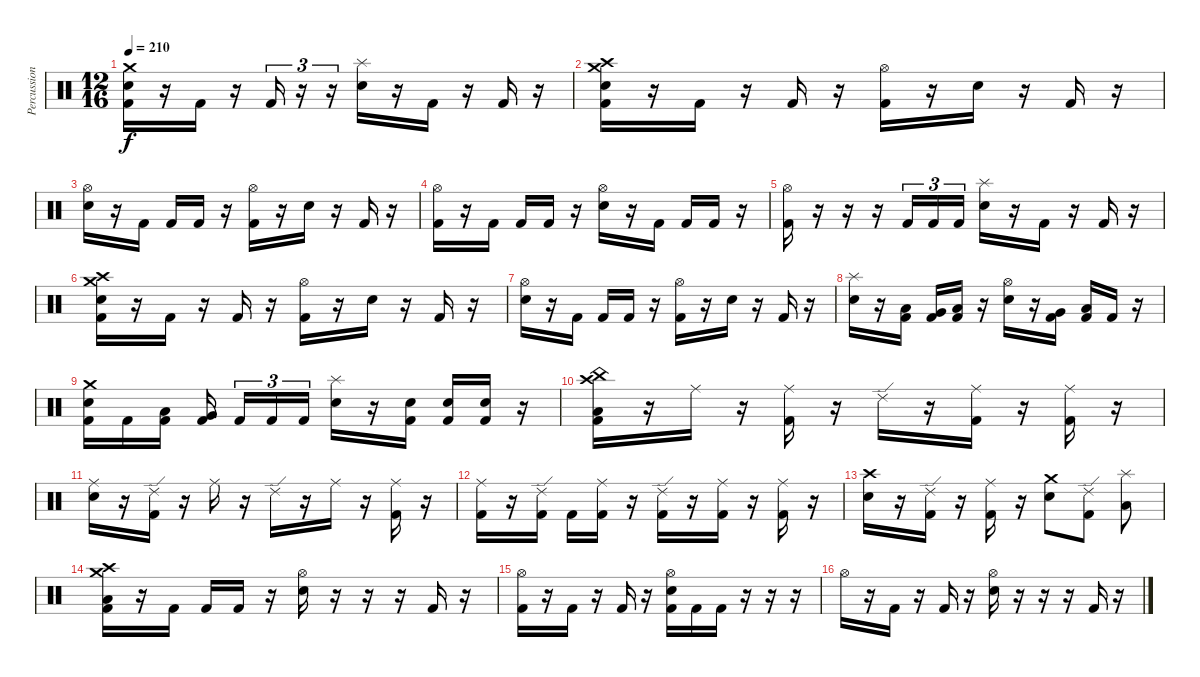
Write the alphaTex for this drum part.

\track ("Percussion" "Percussion") {instrument percussion}
\staff {score}
\articulation defaults
\ts (12 16)
\tempo 210
\clef neutral
\ks c
("Crash medium (hit)" "Electric Snare (hit)" "Kick (hit) 2").16{dy f} r.16 "Kick (hit) 2".16 r.16 "Kick (hit) 2".16{tu (3 2)} r.16{tu (3 2)} r.16{tu (3 2)} ("Splash (hit)" "Electric Snare (hit)").16 r.16 "Kick (hit) 2".16 r.16 "Kick (hit) 2".16 r.16 |
("Crash high (hit)" "Crash medium (hit)" "Electric Snare (hit)" "Kick (hit) 2").16 r.16 "Kick (hit) 2".16 r.16 "Kick (hit) 2".16 r.16 ("Hi-Hat (open)" "Kick (hit) 2").16 r.16 "Electric Snare (hit)".16 r.16 "Kick (hit) 2".16 r.16 |
("Hi-Hat (open)" "Electric Snare (hit)").16 r.16 "Kick (hit) 2".16 "Kick (hit) 2".16 "Kick (hit) 2".16 r.16 ("Hi-Hat (open)" "Kick (hit) 2").16 r.16 "Electric Snare (hit)".16 r.16 "Kick (hit) 2".16 r.16 |
("Hi-Hat (open)" "Kick (hit) 2").16 r.16 "Kick (hit) 2".16 "Kick (hit) 2".16 "Kick (hit) 2".16 r.16 ("Hi-Hat (open)" "Electric Snare (hit)").16 r.16 "Kick (hit) 2".16 "Kick (hit) 2".16 "Kick (hit) 2".16 r.16 |
("Hi-Hat (open)" "Kick (hit) 2").16 r.16 r.16 r.16 "Kick (hit) 2".16{tu (3 2)} "Kick (hit) 2".16{tu (3 2)} "Kick (hit) 2".16{tu (3 2)} ("Splash (hit)" "Electric Snare (hit)").16 r.16 "Kick (hit) 2".16 r.16 "Kick (hit) 2".16 r.16 |
("Crash high (hit)" "Crash medium (hit)" "Electric Snare (hit)" "Kick (hit) 2").16 r.16 "Kick (hit) 2".16 r.16 "Kick (hit) 2".16 r.16 ("Hi-Hat (open)" "Kick (hit) 2").16 r.16 "Electric Snare (hit)".16 r.16 "Kick (hit) 2".16 r.16 |
("Hi-Hat (open)" "Electric Snare (hit)").16 r.16 "Kick (hit) 2".16 "Kick (hit) 2".16 "Kick (hit) 2".16 r.16 ("Hi-Hat (open)" "Kick (hit) 2").16 r.16 "Electric Snare (hit)".16 r.16 "Kick (hit) 2".16 r.16 |
("Splash (hit)" "Electric Snare (hit)").16 r.16 ("Low Tom (hit)" "Kick (hit) 2").16 ("Very Low Tom (hit)" "Kick (hit) 2").16 ("Low Floor Tom (hit)" "Kick (hit) 2").16 r.16 ("Hi-Hat (open)" "Electric Snare (hit)").16 r.16 ("Very Low Tom (hit)" "Kick (hit) 2").16 ("Low Floor Tom (hit)" "Kick (hit) 2").16 "Kick (hit) 2".16 r.16 |
("Crash medium (hit)" "Electric Snare (hit)" "Kick (hit) 2").16 "Kick (hit) 2".16 ("Low Tom (hit)" "Kick (hit) 2").16 ("Very Low Tom (hit)" "Kick (hit) 2").16 "Kick (hit) 2".16{tu (3 2)} "Kick (hit) 2".16{tu (3 2)} "Kick (hit) 2".16{tu (3 2)} ("Splash (hit)" "Electric Snare (hit)").16 r.16 ("Electric Snare (hit)" "Kick (hit) 2").16 ("Electric Snare (hit)" "Kick (hit) 2").16 ("Electric Snare (hit)" "Kick (hit) 2").16 r.16 |
("China (hit)" "Crash high (hit)" "Low Floor Tom (hit)" "Kick (hit) 2").16 r.16 "Ride (middle)".16 r.16 ("Ride (middle)" "Kick (hit) 2").16 r.16 "Ride (edge) 2".16 r.16 ("Ride (middle)" "Kick (hit) 2").16 r.16 ("Ride (middle)" "Kick (hit) 2").16 r.16 |
("Ride (middle)" "Electric Snare (hit)").16 r.16 ("Ride (edge) 2" "Kick (hit) 2").16 r.16 "Ride (middle)".16 r.16 "Ride (edge) 2".16 r.16 "Ride (middle)".16 r.16 ("Ride (middle)" "Kick (hit) 2").16 r.16 |
("Ride (middle)" "Kick (hit) 2").16 r.16 ("Ride (edge) 2" "Kick (hit) 2").16 "Kick (hit) 2".16 ("Ride (middle)" "Kick (hit) 2").16 r.16 ("Ride (edge) 2" "Kick (hit) 2").16 r.16 ("Ride (middle)" "Kick (hit) 2").16 r.16 ("Ride (middle)" "Kick (hit) 2").16 r.16 |
("Crash high (hit)" "Electric Snare (hit)").16 r.16 ("Ride (edge) 2" "Kick (hit) 2").16 r.16 ("Ride (middle)" "Kick (hit) 2").16 r.16 ("Crash medium (hit)" "Electric Snare (hit)").8 ("Ride (edge) 2" "Kick (hit) 2").8 ("Splash (hit)" "Low Floor Tom (hit)").8 |
("Crash high (hit)" "Crash medium (hit)" "Low Floor Tom (hit)" "Kick (hit) 2").16 r.16 "Kick (hit) 2".16 "Kick (hit) 2".16 "Kick (hit) 2".16 r.16 ("Hi-Hat (open)" "Electric Snare (hit)").16 r.16 r.16 r.16 "Kick (hit) 2".16 r.16 |
("Hi-Hat (open)" "Kick (hit) 2").16 r.16 "Kick (hit) 2".16 r.16 "Kick (hit) 2".16 r.16 ("Hi-Hat (open)" "Electric Snare (hit)" "Kick (hit) 2").16 "Kick (hit) 2".16 "Kick (hit) 2".16 r.16 r.16 r.16 |
"Hi-Hat (open)".16 r.16 "Kick (hit) 2".16 r.16 "Kick (hit) 2".16 r.16 ("Hi-Hat (open)" "Electric Snare (hit)").16 r.16 r.16 r.16 "Kick (hit) 2".16 r.16
